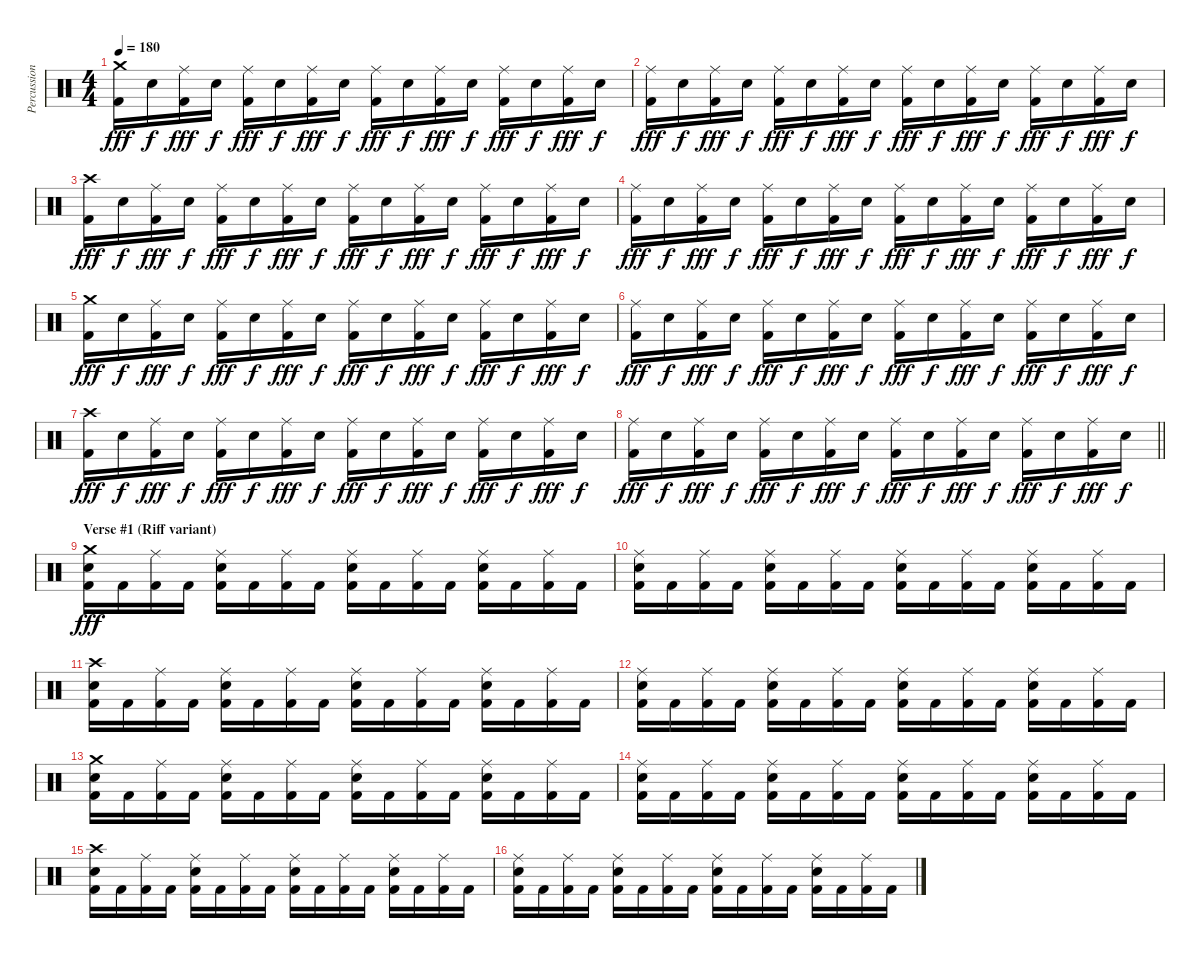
\track ("Percussions" "Percussion") {instrument percussion}
\staff {score}
\articulation defaults
\ts (4 4)
\tempo 180
\clef neutral
\ks c
("Crash medium (hit)" "Kick (hit) 2").16{dy fff} "Snare (hit) 2".16{dy f} ("Ride (middle)" "Kick (hit) 2").16{dy fff} "Snare (hit) 2".16{dy f} ("Ride (middle)" "Kick (hit) 2").16{dy fff} "Snare (hit) 2".16{dy f} ("Ride (middle)" "Kick (hit) 2").16{dy fff} "Snare (hit) 2".16{dy f} ("Ride (middle)" "Kick (hit) 2").16{dy fff} "Snare (hit) 2".16{dy f} ("Ride (middle)" "Kick (hit) 2").16{dy fff} "Snare (hit) 2".16{dy f} ("Ride (middle)" "Kick (hit) 2").16{dy fff} "Snare (hit) 2".16{dy f} ("Ride (middle)" "Kick (hit) 2").16{dy fff} "Snare (hit) 2".16{dy f} |
("Ride (middle)" "Kick (hit) 2").16{dy fff} "Snare (hit) 2".16{dy f} ("Ride (middle)" "Kick (hit) 2").16{dy fff} "Snare (hit) 2".16{dy f} ("Ride (middle)" "Kick (hit) 2").16{dy fff} "Snare (hit) 2".16{dy f} ("Ride (middle)" "Kick (hit) 2").16{dy fff} "Snare (hit) 2".16{dy f} ("Ride (middle)" "Kick (hit) 2").16{dy fff} "Snare (hit) 2".16{dy f} ("Ride (middle)" "Kick (hit) 2").16{dy fff} "Snare (hit) 2".16{dy f} ("Ride (middle)" "Kick (hit) 2").16{dy fff} "Snare (hit) 2".16{dy f} ("Ride (middle)" "Kick (hit) 2").16{dy fff} "Snare (hit) 2".16{dy f} |
("Crash high (hit)" "Kick (hit) 2").16{dy fff} "Snare (hit) 2".16{dy f} ("Ride (middle)" "Kick (hit) 2").16{dy fff} "Snare (hit) 2".16{dy f} ("Ride (middle)" "Kick (hit) 2").16{dy fff} "Snare (hit) 2".16{dy f} ("Ride (middle)" "Kick (hit) 2").16{dy fff} "Snare (hit) 2".16{dy f} ("Ride (middle)" "Kick (hit) 2").16{dy fff} "Snare (hit) 2".16{dy f} ("Ride (middle)" "Kick (hit) 2").16{dy fff} "Snare (hit) 2".16{dy f} ("Ride (middle)" "Kick (hit) 2").16{dy fff} "Snare (hit) 2".16{dy f} ("Ride (middle)" "Kick (hit) 2").16{dy fff} "Snare (hit) 2".16{dy f} |
("Ride (middle)" "Kick (hit) 2").16{dy fff} "Snare (hit) 2".16{dy f} ("Ride (middle)" "Kick (hit) 2").16{dy fff} "Snare (hit) 2".16{dy f} ("Ride (middle)" "Kick (hit) 2").16{dy fff} "Snare (hit) 2".16{dy f} ("Ride (middle)" "Kick (hit) 2").16{dy fff} "Snare (hit) 2".16{dy f} ("Ride (middle)" "Kick (hit) 2").16{dy fff} "Snare (hit) 2".16{dy f} ("Ride (middle)" "Kick (hit) 2").16{dy fff} "Snare (hit) 2".16{dy f} ("Ride (middle)" "Kick (hit) 2").16{dy fff} "Snare (hit) 2".16{dy f} ("Ride (middle)" "Kick (hit) 2").16{dy fff} "Snare (hit) 2".16{dy f} |
("Crash medium (hit)" "Kick (hit) 2").16{dy fff} "Snare (hit) 2".16{dy f} ("Ride (middle)" "Kick (hit) 2").16{dy fff} "Snare (hit) 2".16{dy f} ("Ride (middle)" "Kick (hit) 2").16{dy fff} "Snare (hit) 2".16{dy f} ("Ride (middle)" "Kick (hit) 2").16{dy fff} "Snare (hit) 2".16{dy f} ("Ride (middle)" "Kick (hit) 2").16{dy fff} "Snare (hit) 2".16{dy f} ("Ride (middle)" "Kick (hit) 2").16{dy fff} "Snare (hit) 2".16{dy f} ("Ride (middle)" "Kick (hit) 2").16{dy fff} "Snare (hit) 2".16{dy f} ("Ride (middle)" "Kick (hit) 2").16{dy fff} "Snare (hit) 2".16{dy f} |
("Ride (middle)" "Kick (hit) 2").16{dy fff} "Snare (hit) 2".16{dy f} ("Ride (middle)" "Kick (hit) 2").16{dy fff} "Snare (hit) 2".16{dy f} ("Ride (middle)" "Kick (hit) 2").16{dy fff} "Snare (hit) 2".16{dy f} ("Ride (middle)" "Kick (hit) 2").16{dy fff} "Snare (hit) 2".16{dy f} ("Ride (middle)" "Kick (hit) 2").16{dy fff} "Snare (hit) 2".16{dy f} ("Ride (middle)" "Kick (hit) 2").16{dy fff} "Snare (hit) 2".16{dy f} ("Ride (middle)" "Kick (hit) 2").16{dy fff} "Snare (hit) 2".16{dy f} ("Ride (middle)" "Kick (hit) 2").16{dy fff} "Snare (hit) 2".16{dy f} |
("Crash high (hit)" "Kick (hit) 2").16{dy fff} "Snare (hit) 2".16{dy f} ("Ride (middle)" "Kick (hit) 2").16{dy fff} "Snare (hit) 2".16{dy f} ("Ride (middle)" "Kick (hit) 2").16{dy fff} "Snare (hit) 2".16{dy f} ("Ride (middle)" "Kick (hit) 2").16{dy fff} "Snare (hit) 2".16{dy f} ("Ride (middle)" "Kick (hit) 2").16{dy fff} "Snare (hit) 2".16{dy f} ("Ride (middle)" "Kick (hit) 2").16{dy fff} "Snare (hit) 2".16{dy f} ("Ride (middle)" "Kick (hit) 2").16{dy fff} "Snare (hit) 2".16{dy f} ("Ride (middle)" "Kick (hit) 2").16{dy fff} "Snare (hit) 2".16{dy f} |
\barLineRight lightlight
("Ride (middle)" "Kick (hit) 2").16{dy fff} "Snare (hit) 2".16{dy f} ("Ride (middle)" "Kick (hit) 2").16{dy fff} "Snare (hit) 2".16{dy f} ("Ride (middle)" "Kick (hit) 2").16{dy fff} "Snare (hit) 2".16{dy f} ("Ride (middle)" "Kick (hit) 2").16{dy fff} "Snare (hit) 2".16{dy f} ("Ride (middle)" "Kick (hit) 2").16{dy fff} "Snare (hit) 2".16{dy f} ("Ride (middle)" "Kick (hit) 2").16{dy fff} "Snare (hit) 2".16{dy f} ("Ride (middle)" "Kick (hit) 2").16{dy fff} "Snare (hit) 2".16{dy f} ("Ride (middle)" "Kick (hit) 2").16{dy fff} "Snare (hit) 2".16{dy f} |
\section ("" "Verse #1 (Riff variant)")
("Crash medium (hit)" "Snare (hit) 2" "Kick (hit) 2").16{dy fff} "Kick (hit) 2".16 ("Ride (middle)" "Kick (hit) 2").16 "Kick (hit) 2".16 ("Ride (middle)" "Snare (hit) 2" "Kick (hit) 2").16 "Kick (hit) 2".16 ("Ride (middle)" "Kick (hit) 2").16 "Kick (hit) 2".16 ("Ride (middle)" "Snare (hit) 2" "Kick (hit) 2").16 "Kick (hit) 2".16 ("Ride (middle)" "Kick (hit) 2").16 "Kick (hit) 2".16 ("Ride (middle)" "Snare (hit) 2" "Kick (hit) 2").16 "Kick (hit) 2".16 ("Ride (middle)" "Kick (hit) 2").16 "Kick (hit) 2".16 |
("Ride (middle)" "Snare (hit) 2" "Kick (hit) 2").16 "Kick (hit) 2".16 ("Ride (middle)" "Kick (hit) 2").16 "Kick (hit) 2".16 ("Ride (middle)" "Snare (hit) 2" "Kick (hit) 2").16 "Kick (hit) 2".16 ("Ride (middle)" "Kick (hit) 2").16 "Kick (hit) 2".16 ("Ride (middle)" "Snare (hit) 2" "Kick (hit) 2").16 "Kick (hit) 2".16 ("Ride (middle)" "Kick (hit) 2").16 "Kick (hit) 2".16 ("Ride (middle)" "Snare (hit) 2" "Kick (hit) 2").16 "Kick (hit) 2".16 ("Ride (middle)" "Kick (hit) 2").16 "Kick (hit) 2".16 |
("Crash high (hit)" "Snare (hit) 2" "Kick (hit) 2").16 "Kick (hit) 2".16 ("Ride (middle)" "Kick (hit) 2").16 "Kick (hit) 2".16 ("Ride (middle)" "Snare (hit) 2" "Kick (hit) 2").16 "Kick (hit) 2".16 ("Ride (middle)" "Kick (hit) 2").16 "Kick (hit) 2".16 ("Ride (middle)" "Snare (hit) 2" "Kick (hit) 2").16 "Kick (hit) 2".16 ("Ride (middle)" "Kick (hit) 2").16 "Kick (hit) 2".16 ("Ride (middle)" "Snare (hit) 2" "Kick (hit) 2").16 "Kick (hit) 2".16 ("Ride (middle)" "Kick (hit) 2").16 "Kick (hit) 2".16 |
("Ride (middle)" "Snare (hit) 2" "Kick (hit) 2").16 "Kick (hit) 2".16 ("Ride (middle)" "Kick (hit) 2").16 "Kick (hit) 2".16 ("Ride (middle)" "Snare (hit) 2" "Kick (hit) 2").16 "Kick (hit) 2".16 ("Ride (middle)" "Kick (hit) 2").16 "Kick (hit) 2".16 ("Ride (middle)" "Snare (hit) 2" "Kick (hit) 2").16 "Kick (hit) 2".16 ("Ride (middle)" "Kick (hit) 2").16 "Kick (hit) 2".16 ("Ride (middle)" "Snare (hit) 2" "Kick (hit) 2").16 "Kick (hit) 2".16 ("Ride (middle)" "Kick (hit) 2").16 "Kick (hit) 2".16 |
("Crash medium (hit)" "Snare (hit) 2" "Kick (hit) 2").16 "Kick (hit) 2".16 ("Ride (middle)" "Kick (hit) 2").16 "Kick (hit) 2".16 ("Ride (middle)" "Snare (hit) 2" "Kick (hit) 2").16 "Kick (hit) 2".16 ("Ride (middle)" "Kick (hit) 2").16 "Kick (hit) 2".16 ("Ride (middle)" "Snare (hit) 2" "Kick (hit) 2").16 "Kick (hit) 2".16 ("Ride (middle)" "Kick (hit) 2").16 "Kick (hit) 2".16 ("Ride (middle)" "Snare (hit) 2" "Kick (hit) 2").16 "Kick (hit) 2".16 ("Ride (middle)" "Kick (hit) 2").16 "Kick (hit) 2".16 |
("Ride (middle)" "Snare (hit) 2" "Kick (hit) 2").16 "Kick (hit) 2".16 ("Ride (middle)" "Kick (hit) 2").16 "Kick (hit) 2".16 ("Ride (middle)" "Snare (hit) 2" "Kick (hit) 2").16 "Kick (hit) 2".16 ("Ride (middle)" "Kick (hit) 2").16 "Kick (hit) 2".16 ("Ride (middle)" "Snare (hit) 2" "Kick (hit) 2").16 "Kick (hit) 2".16 ("Ride (middle)" "Kick (hit) 2").16 "Kick (hit) 2".16 ("Ride (middle)" "Snare (hit) 2" "Kick (hit) 2").16 "Kick (hit) 2".16 ("Ride (middle)" "Kick (hit) 2").16 "Kick (hit) 2".16 |
("Crash high (hit)" "Snare (hit) 2" "Kick (hit) 2").16 "Kick (hit) 2".16 ("Ride (middle)" "Kick (hit) 2").16 "Kick (hit) 2".16 ("Ride (middle)" "Snare (hit) 2" "Kick (hit) 2").16 "Kick (hit) 2".16 ("Ride (middle)" "Kick (hit) 2").16 "Kick (hit) 2".16 ("Ride (middle)" "Snare (hit) 2" "Kick (hit) 2").16 "Kick (hit) 2".16 ("Ride (middle)" "Kick (hit) 2").16 "Kick (hit) 2".16 ("Ride (middle)" "Snare (hit) 2" "Kick (hit) 2").16 "Kick (hit) 2".16 ("Ride (middle)" "Kick (hit) 2").16 "Kick (hit) 2".16 |
("Ride (middle)" "Snare (hit) 2" "Kick (hit) 2").16 "Kick (hit) 2".16 ("Ride (middle)" "Kick (hit) 2").16 "Kick (hit) 2".16 ("Ride (middle)" "Snare (hit) 2" "Kick (hit) 2").16 "Kick (hit) 2".16 ("Ride (middle)" "Kick (hit) 2").16 "Kick (hit) 2".16 ("Ride (middle)" "Snare (hit) 2" "Kick (hit) 2").16 "Kick (hit) 2".16 ("Ride (middle)" "Kick (hit) 2").16 "Kick (hit) 2".16 ("Ride (middle)" "Snare (hit) 2" "Kick (hit) 2").16 "Kick (hit) 2".16 ("Ride (middle)" "Kick (hit) 2").16 "Kick (hit) 2".16
